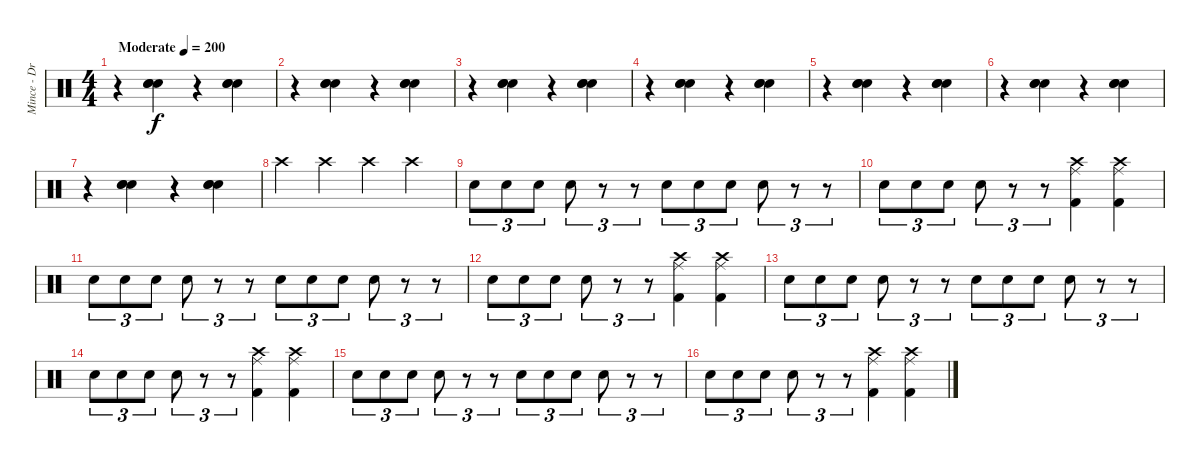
\track ("Mince - Drums" "Mince - Dr") {instrument percussion}
\staff {score}
\articulation defaults
\ts (4 4)
\tempo (200 "Moderate")
\clef neutral
\ks c
r.4{dy f} ("Hand Clap (hit)" "Hand Clap (hit)" "Hand Clap (hit)").4 r.4 ("Hand Clap (hit)" "Hand Clap (hit)" "Hand Clap (hit)").4 |
r.4 ("Hand Clap (hit)" "Hand Clap (hit)" "Hand Clap (hit)").4 r.4 ("Hand Clap (hit)" "Hand Clap (hit)" "Hand Clap (hit)").4 |
r.4 ("Hand Clap (hit)" "Hand Clap (hit)" "Hand Clap (hit)").4 r.4 ("Hand Clap (hit)" "Hand Clap (hit)" "Hand Clap (hit)").4 |
r.4 ("Hand Clap (hit)" "Hand Clap (hit)" "Hand Clap (hit)").4 r.4 ("Hand Clap (hit)" "Hand Clap (hit)" "Hand Clap (hit)").4 |
r.4 ("Hand Clap (hit)" "Hand Clap (hit)" "Hand Clap (hit)").4 r.4 ("Hand Clap (hit)" "Hand Clap (hit)" "Hand Clap (hit)").4 |
r.4 ("Hand Clap (hit)" "Hand Clap (hit)" "Hand Clap (hit)").4 r.4 ("Hand Clap (hit)" "Hand Clap (hit)" "Hand Clap (hit)").4 |
r.4 ("Hand Clap (hit)" "Hand Clap (hit)" "Hand Clap (hit)").4 r.4 ("Hand Clap (hit)" "Hand Clap (hit)" "Hand Clap (hit)").4 |
"Crash high (hit)".4 "Crash high (hit)".4 "Crash high (hit)".4 "Crash high (hit)".4 |
"Electric Snare (hit)".8{tu (3 2)} "Electric Snare (hit)".8{tu (3 2)} "Electric Snare (hit)".8{tu (3 2)} "Electric Snare (hit)".8{tu (3 2)} r.8{tu (3 2)} r.8{tu (3 2)} "Electric Snare (hit)".8{tu (3 2)} "Electric Snare (hit)".8{tu (3 2)} "Electric Snare (hit)".8{tu (3 2)} "Electric Snare (hit)".8{tu (3 2)} r.8{tu (3 2)} r.8{tu (3 2)} |
"Electric Snare (hit)".8{tu (3 2)} "Electric Snare (hit)".8{tu (3 2)} "Electric Snare (hit)".8{tu (3 2)} "Electric Snare (hit)".8{tu (3 2)} r.8{tu (3 2)} r.8{tu (3 2)} ("Crash high (hit)" "Ride (middle)" "Kick (hit) 2").4 ("Crash high (hit)" "Ride (middle)" "Kick (hit) 2").4 |
"Electric Snare (hit)".8{tu (3 2)} "Electric Snare (hit)".8{tu (3 2)} "Electric Snare (hit)".8{tu (3 2)} "Electric Snare (hit)".8{tu (3 2)} r.8{tu (3 2)} r.8{tu (3 2)} "Electric Snare (hit)".8{tu (3 2)} "Electric Snare (hit)".8{tu (3 2)} "Electric Snare (hit)".8{tu (3 2)} "Electric Snare (hit)".8{tu (3 2)} r.8{tu (3 2)} r.8{tu (3 2)} |
"Electric Snare (hit)".8{tu (3 2)} "Electric Snare (hit)".8{tu (3 2)} "Electric Snare (hit)".8{tu (3 2)} "Electric Snare (hit)".8{tu (3 2)} r.8{tu (3 2)} r.8{tu (3 2)} ("Crash high (hit)" "Ride (middle)" "Kick (hit) 2").4 ("Crash high (hit)" "Ride (middle)" "Kick (hit) 2").4 |
"Electric Snare (hit)".8{tu (3 2)} "Electric Snare (hit)".8{tu (3 2)} "Electric Snare (hit)".8{tu (3 2)} "Electric Snare (hit)".8{tu (3 2)} r.8{tu (3 2)} r.8{tu (3 2)} "Electric Snare (hit)".8{tu (3 2)} "Electric Snare (hit)".8{tu (3 2)} "Electric Snare (hit)".8{tu (3 2)} "Electric Snare (hit)".8{tu (3 2)} r.8{tu (3 2)} r.8{tu (3 2)} |
"Electric Snare (hit)".8{tu (3 2)} "Electric Snare (hit)".8{tu (3 2)} "Electric Snare (hit)".8{tu (3 2)} "Electric Snare (hit)".8{tu (3 2)} r.8{tu (3 2)} r.8{tu (3 2)} ("Crash high (hit)" "Ride (middle)" "Kick (hit) 2").4 ("Crash high (hit)" "Ride (middle)" "Kick (hit) 2").4 |
"Electric Snare (hit)".8{tu (3 2)} "Electric Snare (hit)".8{tu (3 2)} "Electric Snare (hit)".8{tu (3 2)} "Electric Snare (hit)".8{tu (3 2)} r.8{tu (3 2)} r.8{tu (3 2)} "Electric Snare (hit)".8{tu (3 2)} "Electric Snare (hit)".8{tu (3 2)} "Electric Snare (hit)".8{tu (3 2)} "Electric Snare (hit)".8{tu (3 2)} r.8{tu (3 2)} r.8{tu (3 2)} |
"Electric Snare (hit)".8{tu (3 2)} "Electric Snare (hit)".8{tu (3 2)} "Electric Snare (hit)".8{tu (3 2)} "Electric Snare (hit)".8{tu (3 2)} r.8{tu (3 2)} r.8{tu (3 2)} ("Crash high (hit)" "Ride (middle)" "Kick (hit) 2").4 ("Crash high (hit)" "Ride (middle)" "Kick (hit) 2").4
